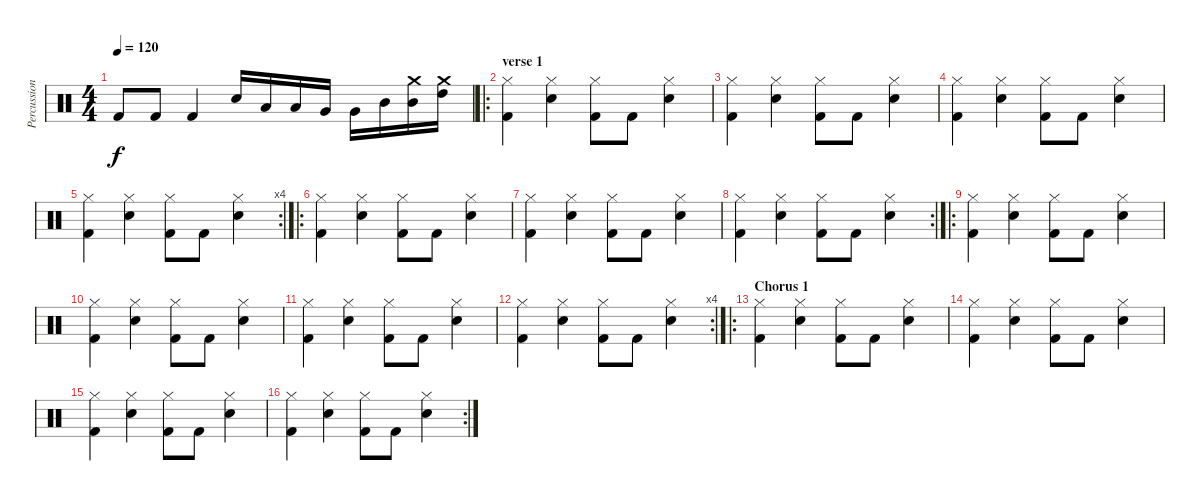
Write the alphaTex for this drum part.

\track ("Percussions" "Percussion") {instrument percussion}
\staff {score}
\articulation defaults
\ts (4 4)
\tempo 120
\clef neutral
\ks c "Kick (hit) 2".8{dy f} "Kick (hit) 2".8 "Kick (hit) 2".4 "Electric Snare (hit)".16 "Low Tom (hit)".16 "Low Tom (hit)".16 "Very Low Tom (hit)".16 "Very Low Tom (hit)".16 "Mid Tom (hit)".16
("Mid Tom (hit)" "Crash medium (hit)"{t}).16 ("High Tom (hit)" "Crash medium (hit)").16 |
\ro
\section ("" "verse 1")
("Kick (hit) 2" "Hi-Hat (closed)").4 ("Electric Snare (hit)" "Hi-Hat (closed)").4 ("Kick (hit) 2" "Hi-Hat (closed)").8 "Kick (hit) 2".8 ("Electric Snare (hit)" "Hi-Hat (closed)").4 |
("Kick (hit) 2" "Hi-Hat (closed)").4 ("Electric Snare (hit)" "Hi-Hat (closed)").4 ("Kick (hit) 2" "Hi-Hat (closed)").8 "Kick (hit) 2".8 ("Electric Snare (hit)" "Hi-Hat (closed)").4 |
("Kick (hit) 2" "Hi-Hat (closed)").4 ("Electric Snare (hit)" "Hi-Hat (closed)").4 ("Kick (hit) 2" "Hi-Hat (closed)").8 "Kick (hit) 2".8 ("Electric Snare (hit)" "Hi-Hat (closed)").4 |
\rc 4
("Kick (hit) 2" "Hi-Hat (closed)").4 ("Electric Snare (hit)" "Hi-Hat (closed)").4 ("Kick (hit) 2" "Hi-Hat (closed)").8 "Kick (hit) 2".8 ("Electric Snare (hit)" "Hi-Hat (closed)").4 |
\ro
("Kick (hit) 2" "Hi-Hat (closed)").4 ("Electric Snare (hit)" "Hi-Hat (closed)").4 ("Kick (hit) 2" "Hi-Hat (closed)").8 "Kick (hit) 2".8 ("Electric Snare (hit)" "Hi-Hat (closed)").4 |
("Kick (hit) 2" "Hi-Hat (closed)").4 ("Electric Snare (hit)" "Hi-Hat (closed)").4 ("Kick (hit) 2" "Hi-Hat (closed)").8 "Kick (hit) 2".8 ("Electric Snare (hit)" "Hi-Hat (closed)").4 |
\rc 2
("Kick (hit) 2" "Hi-Hat (closed)").4 ("Electric Snare (hit)" "Hi-Hat (closed)").4 ("Kick (hit) 2" "Hi-Hat (closed)").8 "Kick (hit) 2".8 ("Electric Snare (hit)" "Hi-Hat (closed)").4 |
\ro
("Kick (hit) 2" "Hi-Hat (closed)").4 ("Electric Snare (hit)" "Hi-Hat (closed)").4 ("Kick (hit) 2" "Hi-Hat (closed)").8 "Kick (hit) 2".8 ("Electric Snare (hit)" "Hi-Hat (closed)").4 |
("Kick (hit) 2" "Hi-Hat (closed)").4 ("Electric Snare (hit)" "Hi-Hat (closed)").4 ("Kick (hit) 2" "Hi-Hat (closed)").8 "Kick (hit) 2".8 ("Electric Snare (hit)" "Hi-Hat (closed)").4 |
("Kick (hit) 2" "Hi-Hat (closed)").4 ("Electric Snare (hit)" "Hi-Hat (closed)").4 ("Kick (hit) 2" "Hi-Hat (closed)").8 "Kick (hit) 2".8 ("Electric Snare (hit)" "Hi-Hat (closed)").4 |
\rc 4
("Kick (hit) 2" "Hi-Hat (closed)").4 ("Electric Snare (hit)" "Hi-Hat (closed)").4 ("Kick (hit) 2" "Hi-Hat (closed)").8 "Kick (hit) 2".8 ("Electric Snare (hit)" "Hi-Hat (closed)").4 |
\ro
\section ("" "Chorus 1")
("Kick (hit) 2" "Hi-Hat (closed)").4 ("Electric Snare (hit)" "Hi-Hat (closed)").4 ("Kick (hit) 2" "Hi-Hat (closed)").8 "Kick (hit) 2".8 ("Electric Snare (hit)" "Hi-Hat (closed)").4 |
("Kick (hit) 2" "Hi-Hat (closed)").4 ("Electric Snare (hit)" "Hi-Hat (closed)").4 ("Kick (hit) 2" "Hi-Hat (closed)").8 "Kick (hit) 2".8 ("Electric Snare (hit)" "Hi-Hat (closed)").4 |
("Kick (hit) 2" "Hi-Hat (closed)").4 ("Electric Snare (hit)" "Hi-Hat (closed)").4 ("Kick (hit) 2" "Hi-Hat (closed)").8 "Kick (hit) 2".8 ("Electric Snare (hit)" "Hi-Hat (closed)").4 |
\rc 2
("Kick (hit) 2" "Hi-Hat (closed)").4 ("Electric Snare (hit)" "Hi-Hat (closed)").4 ("Kick (hit) 2" "Hi-Hat (closed)").8 "Kick (hit) 2".8 ("Electric Snare (hit)" "Hi-Hat (closed)").4
